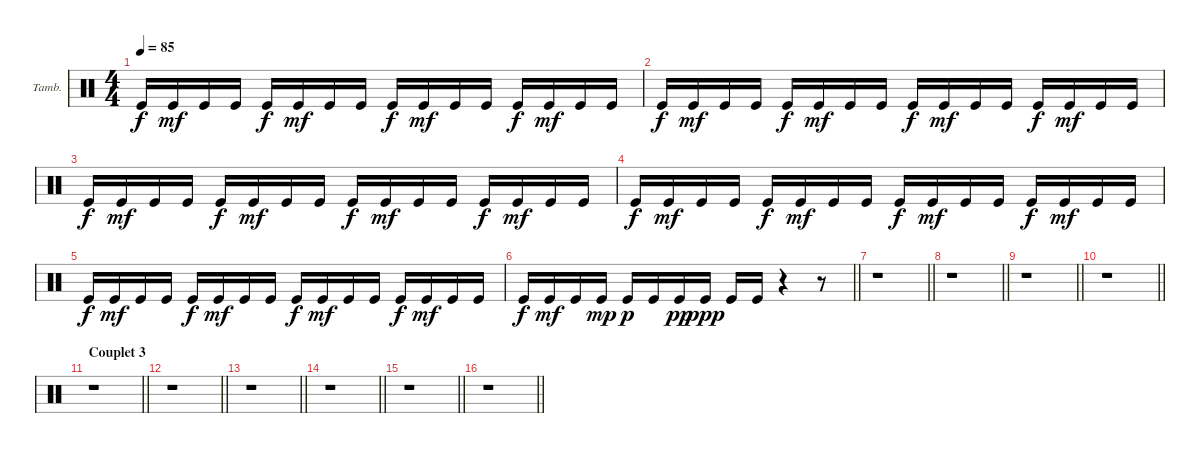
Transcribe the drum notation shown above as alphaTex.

\bracketExtendMode groupsimilarinstruments
\firstSystemTrackNameOrientation horizontal
\otherSystemsTrackNameOrientation horizontal
\chordDiagramsInScore
\track ("Tambourine" "Tamb.") {instrument percussion}
\staff {score}
\articulation defaults
\ts (4 4)
\tempo 85
\clef neutral
\ks c "Kick (hit)".16{dy f} "Kick (hit)".16{dy mf} "Kick (hit)".16 "Kick (hit)".16 "Kick (hit)".16{dy f} "Kick (hit)".16{dy mf} "Kick (hit)".16 "Kick (hit)".16 "Kick (hit)".16{dy f} "Kick (hit)".16{dy mf} "Kick (hit)".16 "Kick (hit)".16 "Kick (hit)".16{dy f} "Kick (hit)".16{dy mf} "Kick (hit)".16 "Kick (hit)".16
|
"Kick (hit)".16{dy f} "Kick (hit)".16{dy mf} "Kick (hit)".16 "Kick (hit)".16 "Kick (hit)".16{dy f} "Kick (hit)".16{dy mf} "Kick (hit)".16 "Kick (hit)".16 "Kick (hit)".16{dy f} "Kick (hit)".16{dy mf} "Kick (hit)".16 "Kick (hit)".16 "Kick (hit)".16{dy f} "Kick (hit)".16{dy mf} "Kick (hit)".16 "Kick (hit)".16 |
"Kick (hit)".16{dy f} "Kick (hit)".16{dy mf} "Kick (hit)".16 "Kick (hit)".16 "Kick (hit)".16{dy f} "Kick (hit)".16{dy mf} "Kick (hit)".16 "Kick (hit)".16 "Kick (hit)".16{dy f} "Kick (hit)".16{dy mf} "Kick (hit)".16 "Kick (hit)".16 "Kick (hit)".16{dy f} "Kick (hit)".16{dy mf} "Kick (hit)".16 "Kick (hit)".16 |
"Kick (hit)".16{dy f} "Kick (hit)".16{dy mf} "Kick (hit)".16 "Kick (hit)".16 "Kick (hit)".16{dy f} "Kick (hit)".16{dy mf} "Kick (hit)".16 "Kick (hit)".16 "Kick (hit)".16{dy f} "Kick (hit)".16{dy mf} "Kick (hit)".16 "Kick (hit)".16 "Kick (hit)".16{dy f} "Kick (hit)".16{dy mf} "Kick (hit)".16 "Kick (hit)".16 |
"Kick (hit)".16{dy f} "Kick (hit)".16{dy mf} "Kick (hit)".16 "Kick (hit)".16 "Kick (hit)".16{dy f} "Kick (hit)".16{dy mf} "Kick (hit)".16 "Kick (hit)".16 "Kick (hit)".16{dy f} "Kick (hit)".16{dy mf} "Kick (hit)".16 "Kick (hit)".16 "Kick (hit)".16{dy f} "Kick (hit)".16{dy mf} "Kick (hit)".16 "Kick (hit)".16 |
\barLineRight lightlight "Kick (hit)".16{dy f} "Kick (hit)".16{dy mf} "Kick (hit)".16 "Kick (hit)".16{dy mp} "Kick (hit)".16{dy p} "Kick (hit)".16 "Kick (hit)".16{dy pp} "Kick (hit)".16{dy ppp} "Kick (hit)".16 "Kick (hit)".16
r.4 r.8 |
\barLineRight lightlight
r.1 |
\barLineRight lightlight
r.1 |
\barLineRight lightlight
r.1 |
\barLineRight lightlight
r.1 |
\section ("" "Couplet 3")
\barLineRight lightlight
r.1 |
\barLineRight lightlight
r.1 |
\barLineRight lightlight
r.1 |
\barLineRight lightlight
r.1 |
\barLineRight lightlight
r.1 |
\barLineRight lightlight
r.1
